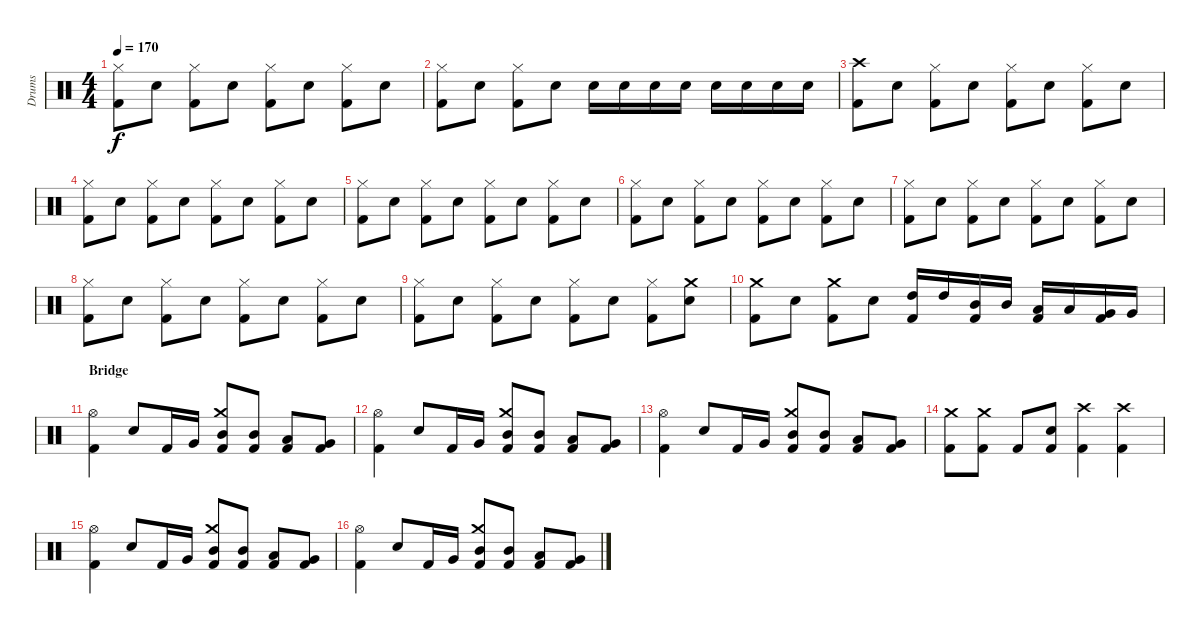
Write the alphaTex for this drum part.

\track ("Drums" "Drums") {instrument percussion}
\staff {score}
\articulation defaults
\ts (4 4)
\tempo 170
\clef neutral
\ks c
("Hi-Hat (closed)" "Kick (hit) 2").8{dy f} "Electric Snare (hit)".8 ("Hi-Hat (closed)" "Kick (hit) 2").8 "Electric Snare (hit)".8 ("Hi-Hat (closed)" "Kick (hit) 2").8 "Electric Snare (hit)".8 ("Hi-Hat (closed)" "Kick (hit) 2").8 "Electric Snare (hit)".8 |
("Hi-Hat (closed)" "Kick (hit) 2").8 "Electric Snare (hit)".8 ("Hi-Hat (closed)" "Kick (hit) 2").8 "Electric Snare (hit)".8 "Electric Snare (hit)".16 "Electric Snare (hit)".16 "Electric Snare (hit)".16 "Electric Snare (hit)".16 "Electric Snare (hit)".16 "Electric Snare (hit)".16 "Electric Snare (hit)".16 "Electric Snare (hit)".16 |
("Crash high (hit)" "Kick (hit) 2").8{volume 11} "Electric Snare (hit)".8 ("Hi-Hat (closed)" "Kick (hit) 2").8 "Electric Snare (hit)".8 ("Hi-Hat (closed)" "Kick (hit) 2").8 "Electric Snare (hit)".8 ("Hi-Hat (closed)" "Kick (hit) 2").8 "Electric Snare (hit)".8 |
("Hi-Hat (closed)" "Kick (hit) 2").8 "Electric Snare (hit)".8 ("Hi-Hat (closed)" "Kick (hit) 2").8 "Electric Snare (hit)".8 ("Hi-Hat (closed)" "Kick (hit) 2").8 "Electric Snare (hit)".8 ("Hi-Hat (closed)" "Kick (hit) 2").8 "Electric Snare (hit)".8 |
("Hi-Hat (closed)" "Kick (hit) 2").8 "Electric Snare (hit)".8 ("Hi-Hat (closed)" "Kick (hit) 2").8 "Electric Snare (hit)".8 ("Hi-Hat (closed)" "Kick (hit) 2").8 "Electric Snare (hit)".8 ("Hi-Hat (closed)" "Kick (hit) 2").8 "Electric Snare (hit)".8 |
("Hi-Hat (closed)" "Kick (hit) 2").8 "Electric Snare (hit)".8 ("Hi-Hat (closed)" "Kick (hit) 2").8 "Electric Snare (hit)".8 ("Hi-Hat (closed)" "Kick (hit) 2").8 "Electric Snare (hit)".8 ("Hi-Hat (closed)" "Kick (hit) 2").8 "Electric Snare (hit)".8 |
("Hi-Hat (closed)" "Kick (hit) 2").8 "Electric Snare (hit)".8 ("Hi-Hat (closed)" "Kick (hit) 2").8 "Electric Snare (hit)".8 ("Hi-Hat (closed)" "Kick (hit) 2").8 "Electric Snare (hit)".8 ("Hi-Hat (closed)" "Kick (hit) 2").8 "Electric Snare (hit)".8 |
("Hi-Hat (closed)" "Kick (hit) 2").8 "Electric Snare (hit)".8 ("Hi-Hat (closed)" "Kick (hit) 2").8 "Electric Snare (hit)".8 ("Hi-Hat (closed)" "Kick (hit) 2").8 "Electric Snare (hit)".8 ("Hi-Hat (closed)" "Kick (hit) 2").8 "Electric Snare (hit)".8 |
("Hi-Hat (closed)" "Kick (hit) 2").8 "Electric Snare (hit)".8 ("Hi-Hat (closed)" "Kick (hit) 2").8 "Electric Snare (hit)".8 ("Hi-Hat (closed)" "Kick (hit) 2").8 "Electric Snare (hit)".8 ("Hi-Hat (closed)" "Kick (hit) 2").8 ("Crash medium (hit)" "Electric Snare (hit)").8 |
("Crash medium (hit)" "Kick (hit) 2").8 "Electric Snare (hit)".8 ("Crash medium (hit)" "Kick (hit) 2").8 "Electric Snare (hit)".8 ("High Tom (hit)" "Kick (hit) 2").16 "High Tom (hit)".16 ("Mid Tom (hit)" "Kick (hit) 2").16 "Mid Tom (hit)".16 ("Low Tom (hit)" "Kick (hit) 2").16 "Low Tom (hit)".16 ("Very Low Tom (hit)" "Kick (hit) 2").16 "Very Low Tom (hit)".16 |
\section ("" "Bridge")
("Hi-Hat (open)" "Kick (hit) 2").4 "Electric Snare (hit)".8 "Kick (hit) 2".16 "Very Low Tom (hit)".16 ("Crash medium (hit)" "Mid Tom (hit)" "Kick (hit) 2").8 ("Mid Tom (hit)" "Kick (hit) 2").8 ("Low Tom (hit)" "Kick (hit) 2").8 ("Very Low Tom (hit)" "Kick (hit) 2").8 |
("Hi-Hat (open)" "Kick (hit) 2").4 "Electric Snare (hit)".8 "Kick (hit) 2".16 "Very Low Tom (hit)".16 ("Crash medium (hit)" "Mid Tom (hit)" "Kick (hit) 2").8 ("Mid Tom (hit)" "Kick (hit) 2").8 ("Low Tom (hit)" "Kick (hit) 2").8 ("Very Low Tom (hit)" "Kick (hit) 2").8 |
("Hi-Hat (open)" "Kick (hit) 2").4 "Electric Snare (hit)".8 "Kick (hit) 2".16 "Very Low Tom (hit)".16 ("Crash medium (hit)" "Mid Tom (hit)" "Kick (hit) 2").8 ("Mid Tom (hit)" "Kick (hit) 2").8 ("Low Tom (hit)" "Kick (hit) 2").8 ("Very Low Tom (hit)" "Kick (hit) 2").8 |
("Crash medium (hit)" "Kick (hit) 2").8 ("Crash medium (hit)" "Kick (hit) 2").8 "Kick (hit) 2".8 ("Electric Snare (hit)" "Kick (hit) 2").8 ("Crash high (hit)" "Kick (hit) 2").4 ("Crash high (hit)" "Kick (hit) 2").4 |
("Hi-Hat (open)" "Kick (hit) 2").4 "Electric Snare (hit)".8 "Kick (hit) 2".16 "Very Low Tom (hit)".16 ("Crash medium (hit)" "Mid Tom (hit)" "Kick (hit) 2").8 ("Mid Tom (hit)" "Kick (hit) 2").8 ("Low Tom (hit)" "Kick (hit) 2").8 ("Very Low Tom (hit)" "Kick (hit) 2").8 |
("Hi-Hat (open)" "Kick (hit) 2").4 "Electric Snare (hit)".8 "Kick (hit) 2".16 "Very Low Tom (hit)".16 ("Crash medium (hit)" "Mid Tom (hit)" "Kick (hit) 2").8 ("Mid Tom (hit)" "Kick (hit) 2").8 ("Low Tom (hit)" "Kick (hit) 2").8 ("Very Low Tom (hit)" "Kick (hit) 2").8
